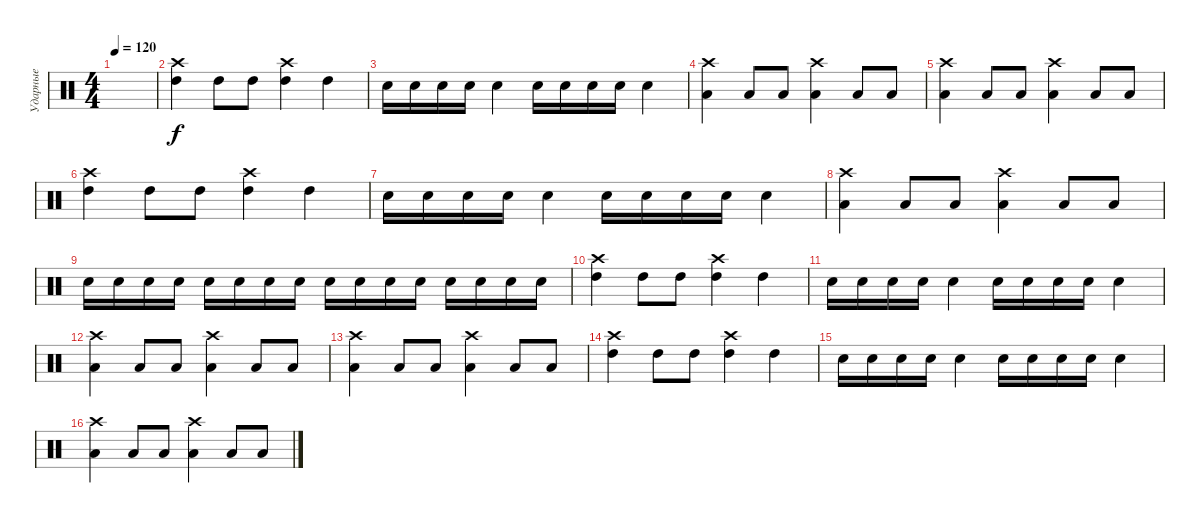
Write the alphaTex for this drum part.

\track ("Ударные" "Ударные") {instrument percussion}
\staff {score}
\articulation defaults
\ts (4 4)
\tempo 120
\clef neutral
\ks c
|
("Crash high (hit)" "High Tom (hit)").4 "High Tom (hit)".8 "High Tom (hit)".8 ("Crash high (hit)" "High Tom (hit)").4 "High Tom (hit)".4 |
"Snare (hit) 2".16 "Snare (hit) 2".16 "Snare (hit) 2".16 "Snare (hit) 2".16 "Snare (hit) 2".4 "Snare (hit) 2".16 "Snare (hit) 2".16 "Snare (hit) 2".16 "Snare (hit) 2".16 "Snare (hit) 2".4 |
("Low Tom (hit)" "Crash high (hit)").4 "Low Tom (hit)".8 "Low Tom (hit)".8 ("Low Tom (hit)" "Crash high (hit)").4 "Low Tom (hit)".8 "Low Tom (hit)".8 |
("Low Tom (hit)" "Crash high (hit)").4 "Low Tom (hit)".8 "Low Tom (hit)".8 ("Low Tom (hit)" "Crash high (hit)").4 "Low Tom (hit)".8 "Low Tom (hit)".8 |
("Crash high (hit)" "High Tom (hit)").4 "High Tom (hit)".8 "High Tom (hit)".8 ("Crash high (hit)" "High Tom (hit)").4 "High Tom (hit)".4 |
"Snare (hit) 2".16 "Snare (hit) 2".16 "Snare (hit) 2".16 "Snare (hit) 2".16 "Snare (hit) 2".4 "Snare (hit) 2".16 "Snare (hit) 2".16 "Snare (hit) 2".16 "Snare (hit) 2".16 "Snare (hit) 2".4 |
("Low Tom (hit)" "Crash high (hit)").4 "Low Tom (hit)".8 "Low Tom (hit)".8 ("Low Tom (hit)" "Crash high (hit)").4 "Low Tom (hit)".8 "Low Tom (hit)".8 |
"Electric Snare (hit)".16 "Electric Snare (hit)".16 "Electric Snare (hit)".16 "Electric Snare (hit)".16 "Electric Snare (hit)".16 "Electric Snare (hit)".16 "Electric Snare (hit)".16 "Electric Snare (hit)".16 "Electric Snare (hit)".16 "Electric Snare (hit)".16 "Electric Snare (hit)".16 "Electric Snare (hit)".16 "Electric Snare (hit)".16 "Electric Snare (hit)".16 "Electric Snare (hit)".16 "Electric Snare (hit)".16 |
("Crash high (hit)" "High Tom (hit)").4 "High Tom (hit)".8 "High Tom (hit)".8 ("Crash high (hit)" "High Tom (hit)").4 "High Tom (hit)".4 |
"Snare (hit) 2".16 "Snare (hit) 2".16 "Snare (hit) 2".16 "Snare (hit) 2".16 "Snare (hit) 2".4 "Snare (hit) 2".16 "Snare (hit) 2".16 "Snare (hit) 2".16 "Snare (hit) 2".16 "Snare (hit) 2".4 |
("Low Tom (hit)" "Crash high (hit)").4 "Low Tom (hit)".8 "Low Tom (hit)".8 ("Low Tom (hit)" "Crash high (hit)").4 "Low Tom (hit)".8 "Low Tom (hit)".8 |
("Low Tom (hit)" "Crash high (hit)").4 "Low Tom (hit)".8 "Low Tom (hit)".8 ("Low Tom (hit)" "Crash high (hit)").4 "Low Tom (hit)".8 "Low Tom (hit)".8 |
("Crash high (hit)" "High Tom (hit)").4 "High Tom (hit)".8 "High Tom (hit)".8 ("Crash high (hit)" "High Tom (hit)").4 "High Tom (hit)".4 |
"Snare (hit) 2".16 "Snare (hit) 2".16 "Snare (hit) 2".16 "Snare (hit) 2".16 "Snare (hit) 2".4 "Snare (hit) 2".16 "Snare (hit) 2".16 "Snare (hit) 2".16 "Snare (hit) 2".16 "Snare (hit) 2".4 |
("Low Tom (hit)" "Crash high (hit)").4 "Low Tom (hit)".8 "Low Tom (hit)".8 ("Low Tom (hit)" "Crash high (hit)").4 "Low Tom (hit)".8 "Low Tom (hit)".8
